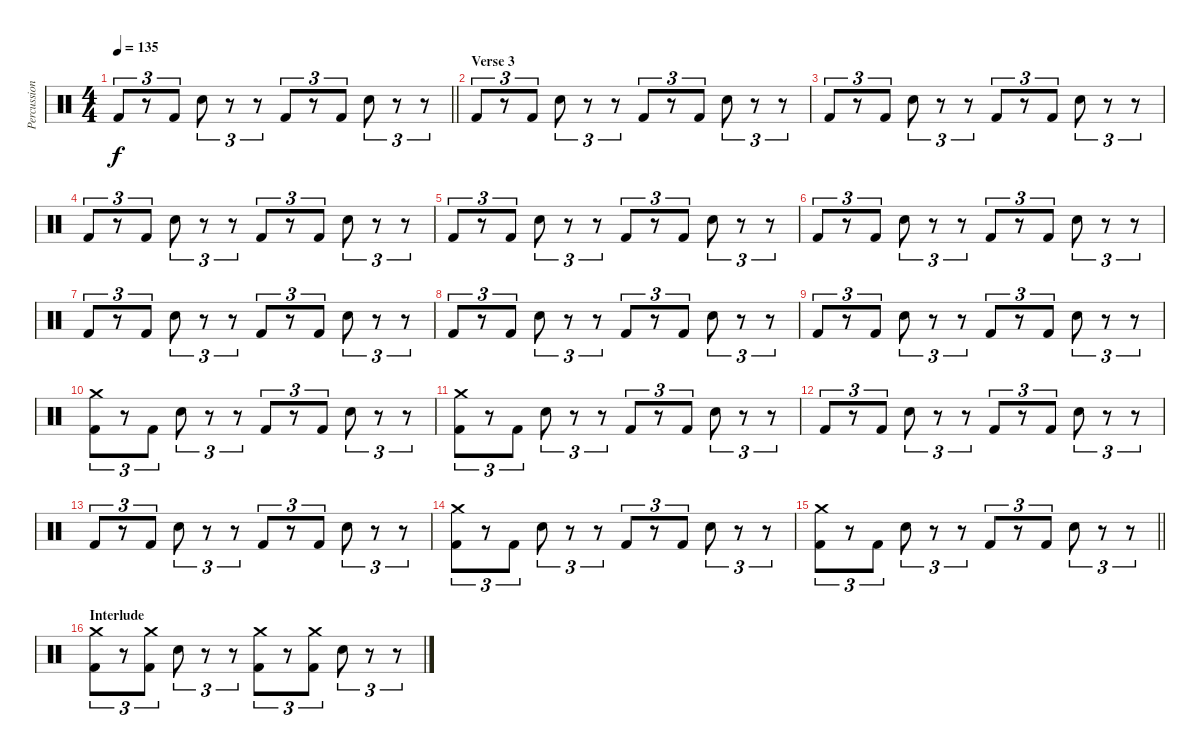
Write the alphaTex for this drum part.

\track ("Percussion" "Percussion") {instrument percussion}
\staff {score}
\articulation defaults
\ts (4 4)
\tempo 135
\clef neutral
\barLineRight lightlight
\ks c "Kick (hit) 2".8{tu (3 2) dy f}
r.8{tu (3 2)} "Kick (hit) 2".8{tu (3 2)} "Electric Snare (hit)".8{tu (3 2)} r.8{tu (3 2)} r.8{tu (3 2)} "Kick (hit) 2".8{tu (3 2)} r.8{tu (3 2)} "Kick (hit) 2".8{tu (3 2)} "Electric Snare (hit)".8{tu (3 2)} r.8{tu (3 2)} r.8{tu (3 2)} |
\section ("" "Verse 3")
"Kick (hit) 2".8{tu (3 2)} r.8{tu (3 2)} "Kick (hit) 2".8{tu (3 2)} "Electric Snare (hit)".8{tu (3 2)} r.8{tu (3 2)} r.8{tu (3 2)} "Kick (hit) 2".8{tu (3 2)} r.8{tu (3 2)} "Kick (hit) 2".8{tu (3 2)} "Electric Snare (hit)".8{tu (3 2)} r.8{tu (3 2)} r.8{tu (3 2)} |
"Kick (hit) 2".8{tu (3 2)} r.8{tu (3 2)} "Kick (hit) 2".8{tu (3 2)} "Electric Snare (hit)".8{tu (3 2)} r.8{tu (3 2)} r.8{tu (3 2)} "Kick (hit) 2".8{tu (3 2)} r.8{tu (3 2)} "Kick (hit) 2".8{tu (3 2)} "Electric Snare (hit)".8{tu (3 2)} r.8{tu (3 2)} r.8{tu (3 2)} |
"Kick (hit) 2".8{tu (3 2)} r.8{tu (3 2)} "Kick (hit) 2".8{tu (3 2)} "Electric Snare (hit)".8{tu (3 2)} r.8{tu (3 2)} r.8{tu (3 2)} "Kick (hit) 2".8{tu (3 2)} r.8{tu (3 2)} "Kick (hit) 2".8{tu (3 2)} "Electric Snare (hit)".8{tu (3 2)} r.8{tu (3 2)} r.8{tu (3 2)} |
"Kick (hit) 2".8{tu (3 2)} r.8{tu (3 2)} "Kick (hit) 2".8{tu (3 2)} "Electric Snare (hit)".8{tu (3 2)} r.8{tu (3 2)} r.8{tu (3 2)} "Kick (hit) 2".8{tu (3 2)} r.8{tu (3 2)} "Kick (hit) 2".8{tu (3 2)} "Electric Snare (hit)".8{tu (3 2)} r.8{tu (3 2)} r.8{tu (3 2)} |
"Kick (hit) 2".8{tu (3 2)} r.8{tu (3 2)} "Kick (hit) 2".8{tu (3 2)} "Electric Snare (hit)".8{tu (3 2)} r.8{tu (3 2)} r.8{tu (3 2)} "Kick (hit) 2".8{tu (3 2)} r.8{tu (3 2)} "Kick (hit) 2".8{tu (3 2)} "Electric Snare (hit)".8{tu (3 2)} r.8{tu (3 2)} r.8{tu (3 2)} |
"Kick (hit) 2".8{tu (3 2)} r.8{tu (3 2)} "Kick (hit) 2".8{tu (3 2)} "Electric Snare (hit)".8{tu (3 2)} r.8{tu (3 2)} r.8{tu (3 2)} "Kick (hit) 2".8{tu (3 2)} r.8{tu (3 2)} "Kick (hit) 2".8{tu (3 2)} "Electric Snare (hit)".8{tu (3 2)} r.8{tu (3 2)} r.8{tu (3 2)} |
"Kick (hit) 2".8{tu (3 2)} r.8{tu (3 2)} "Kick (hit) 2".8{tu (3 2)} "Electric Snare (hit)".8{tu (3 2)} r.8{tu (3 2)} r.8{tu (3 2)} "Kick (hit) 2".8{tu (3 2)} r.8{tu (3 2)} "Kick (hit) 2".8{tu (3 2)} "Electric Snare (hit)".8{tu (3 2)} r.8{tu (3 2)} r.8{tu (3 2)} |
"Kick (hit) 2".8{tu (3 2)} r.8{tu (3 2)} "Kick (hit) 2".8{tu (3 2)} "Electric Snare (hit)".8{tu (3 2)} r.8{tu (3 2)} r.8{tu (3 2)} "Kick (hit) 2".8{tu (3 2)} r.8{tu (3 2)} "Kick (hit) 2".8{tu (3 2)} "Electric Snare (hit)".8{tu (3 2)} r.8{tu (3 2)} r.8{tu (3 2)} |
("Crash medium (hit)" "Kick (hit) 2").8{tu (3 2)} r.8{tu (3 2)} "Kick (hit) 2".8{tu (3 2)} "Electric Snare (hit)".8{tu (3 2)} r.8{tu (3 2)} r.8{tu (3 2)} "Kick (hit) 2".8{tu (3 2)} r.8{tu (3 2)} "Kick (hit) 2".8{tu (3 2)} "Electric Snare (hit)".8{tu (3 2)} r.8{tu (3 2)} r.8{tu (3 2)} |
("Crash medium (hit)" "Kick (hit) 2").8{tu (3 2)} r.8{tu (3 2)} "Kick (hit) 2".8{tu (3 2)} "Electric Snare (hit)".8{tu (3 2)} r.8{tu (3 2)} r.8{tu (3 2)} "Kick (hit) 2".8{tu (3 2)} r.8{tu (3 2)} "Kick (hit) 2".8{tu (3 2)} "Electric Snare (hit)".8{tu (3 2)} r.8{tu (3 2)} r.8{tu (3 2)} |
"Kick (hit) 2".8{tu (3 2)} r.8{tu (3 2)} "Kick (hit) 2".8{tu (3 2)} "Electric Snare (hit)".8{tu (3 2)} r.8{tu (3 2)} r.8{tu (3 2)} "Kick (hit) 2".8{tu (3 2)} r.8{tu (3 2)} "Kick (hit) 2".8{tu (3 2)} "Electric Snare (hit)".8{tu (3 2)} r.8{tu (3 2)} r.8{tu (3 2)} |
"Kick (hit) 2".8{tu (3 2)} r.8{tu (3 2)} "Kick (hit) 2".8{tu (3 2)} "Electric Snare (hit)".8{tu (3 2)} r.8{tu (3 2)} r.8{tu (3 2)} "Kick (hit) 2".8{tu (3 2)} r.8{tu (3 2)} "Kick (hit) 2".8{tu (3 2)} "Electric Snare (hit)".8{tu (3 2)} r.8{tu (3 2)} r.8{tu (3 2)} |
("Crash medium (hit)" "Kick (hit) 2").8{tu (3 2)} r.8{tu (3 2)} "Kick (hit) 2".8{tu (3 2)} "Electric Snare (hit)".8{tu (3 2)} r.8{tu (3 2)} r.8{tu (3 2)} "Kick (hit) 2".8{tu (3 2)} r.8{tu (3 2)} "Kick (hit) 2".8{tu (3 2)} "Electric Snare (hit)".8{tu (3 2)} r.8{tu (3 2)} r.8{tu (3 2)} |
\barLineRight lightlight
("Crash medium (hit)" "Kick (hit) 2").8{tu (3 2)} r.8{tu (3 2)} "Kick (hit) 2".8{tu (3 2)} "Electric Snare (hit)".8{tu (3 2)} r.8{tu (3 2)} r.8{tu (3 2)} "Kick (hit) 2".8{tu (3 2)} r.8{tu (3 2)} "Kick (hit) 2".8{tu (3 2)} "Electric Snare (hit)".8{tu (3 2)} r.8{tu (3 2)} r.8{tu (3 2)} |
\section ("" "Interlude")
("Crash medium (hit)" "Kick (hit) 2").8{tu (3 2)} r.8{tu (3 2)} ("Crash medium (hit)" "Kick (hit) 2").8{tu (3 2)} "Electric Snare (hit)".8{tu (3 2)} r.8{tu (3 2)} r.8{tu (3 2)} ("Crash medium (hit)" "Kick (hit) 2").8{tu (3 2)} r.8{tu (3 2)} ("Crash medium (hit)" "Kick (hit) 2").8{tu (3 2)} "Electric Snare (hit)".8{tu (3 2)} r.8{tu (3 2)} r.8{tu (3 2)}
